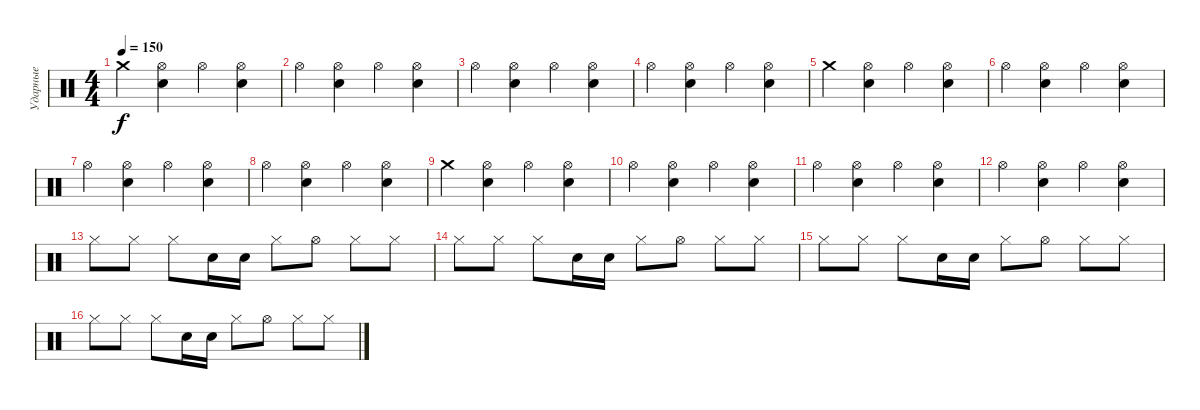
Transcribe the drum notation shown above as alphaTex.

\track ("Ударные" "Ударные") {instrument percussion}
\staff {score}
\articulation defaults
\ts (4 4)
\tempo 150
\clef neutral
\ks c "Crash medium (hit)".4{dy f}
("Hi-Hat (open)" "Snare (hit) 2").4 "Hi-Hat (open)".4 ("Hi-Hat (open)" "Snare (hit) 2").4 |
"Hi-Hat (open)".4 ("Hi-Hat (open)" "Snare (hit) 2").4 "Hi-Hat (open)".4 ("Hi-Hat (open)" "Snare (hit) 2").4 |
"Hi-Hat (open)".4 ("Hi-Hat (open)" "Snare (hit) 2").4 "Hi-Hat (open)".4 ("Hi-Hat (open)" "Snare (hit) 2").4 |
"Hi-Hat (open)".4 ("Hi-Hat (open)" "Snare (hit) 2").4 "Hi-Hat (open)".4 ("Hi-Hat (open)" "Snare (hit) 2").4 |
"Crash medium (hit)".4 ("Hi-Hat (open)" "Snare (hit) 2").4 "Hi-Hat (open)".4 ("Hi-Hat (open)" "Snare (hit) 2").4 |
"Hi-Hat (open)".4 ("Hi-Hat (open)" "Snare (hit) 2").4 "Hi-Hat (open)".4 ("Hi-Hat (open)" "Snare (hit) 2").4 |
"Hi-Hat (open)".4 ("Hi-Hat (open)" "Snare (hit) 2").4 "Hi-Hat (open)".4 ("Hi-Hat (open)" "Snare (hit) 2").4 |
"Hi-Hat (open)".4 ("Hi-Hat (open)" "Snare (hit) 2").4 "Hi-Hat (open)".4 ("Hi-Hat (open)" "Snare (hit) 2").4 |
"Crash medium (hit)".4 ("Hi-Hat (open)" "Snare (hit) 2").4 "Hi-Hat (open)".4 ("Hi-Hat (open)" "Snare (hit) 2").4 |
"Hi-Hat (open)".4 ("Hi-Hat (open)" "Snare (hit) 2").4 "Hi-Hat (open)".4 ("Hi-Hat (open)" "Snare (hit) 2").4 |
"Hi-Hat (open)".4 ("Hi-Hat (open)" "Snare (hit) 2").4 "Hi-Hat (open)".4 ("Hi-Hat (open)" "Snare (hit) 2").4 |
"Hi-Hat (open)".4 ("Hi-Hat (open)" "Snare (hit) 2").4 "Hi-Hat (open)".4 ("Hi-Hat (open)" "Snare (hit) 2").4 |
"Hi-Hat (closed)".8 "Hi-Hat (closed)".8 "Hi-Hat (closed)".8 "Snare (hit) 2".16 "Snare (hit) 2".16 "Hi-Hat (closed)".8 "Hi-Hat (open)".8 "Hi-Hat (closed)".8 "Hi-Hat (closed)".8 |
"Hi-Hat (closed)".8 "Hi-Hat (closed)".8 "Hi-Hat (closed)".8 "Snare (hit) 2".16 "Snare (hit) 2".16 "Hi-Hat (closed)".8 "Hi-Hat (open)".8 "Hi-Hat (closed)".8 "Hi-Hat (closed)".8 |
"Hi-Hat (closed)".8 "Hi-Hat (closed)".8 "Hi-Hat (closed)".8 "Snare (hit) 2".16 "Snare (hit) 2".16 "Hi-Hat (closed)".8 "Hi-Hat (open)".8 "Hi-Hat (closed)".8 "Hi-Hat (closed)".8 |
"Hi-Hat (closed)".8 "Hi-Hat (closed)".8 "Hi-Hat (closed)".8 "Snare (hit) 2".16 "Snare (hit) 2".16 "Hi-Hat (closed)".8 "Hi-Hat (open)".8 "Hi-Hat (closed)".8 "Hi-Hat (closed)".8
